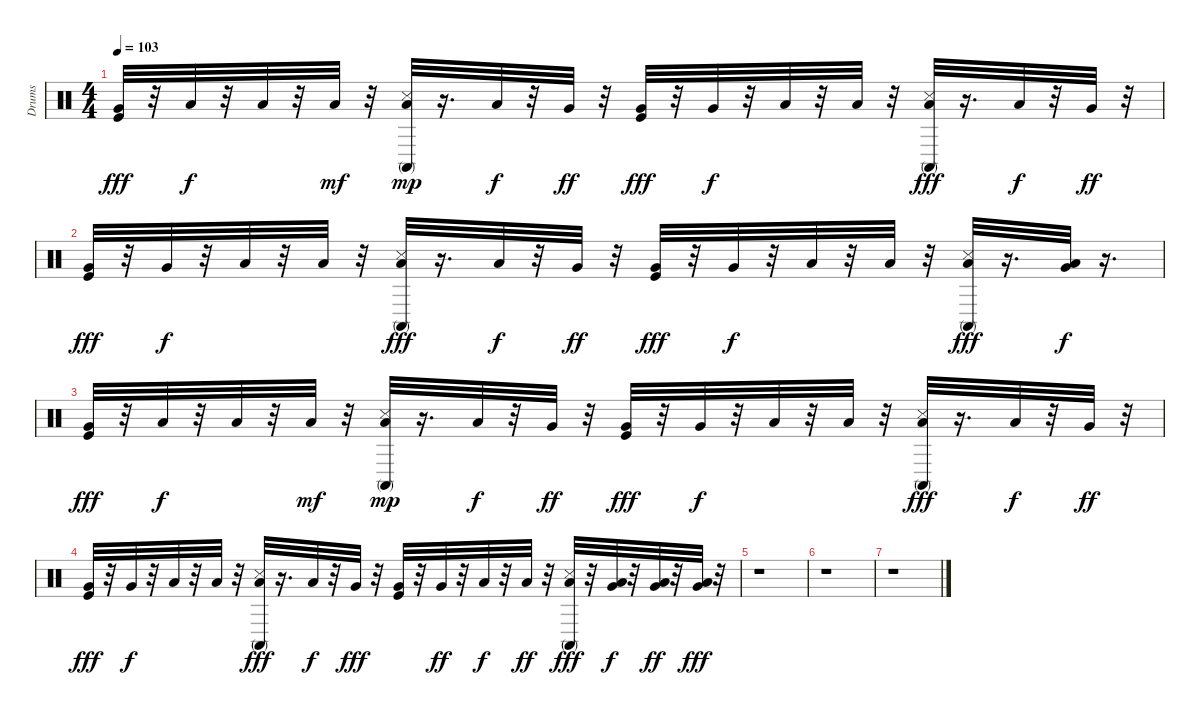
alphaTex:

\track ("Drums" "Drums") {instrument percussion}
\staff {score}
\articulation defaults
\ts (4 4)
\tempo 103
\clef neutral
\ks c
("Very Low Tom (hit)" "Kick (hit)").32{dy fff} r.32 "Low Floor Tom (hit)".32{dy f} r.32 "Low Floor Tom (hit)".32 r.32 "Low Floor Tom (hit)".32{dy mf} r.32 ("Conga high (mute)" "Snare (side stick) 3" "Low Floor Tom (hit)").32{dy mp} r.16{d} "Low Floor Tom (hit)".32{dy f} r.32 "Very Low Tom (hit)".32{dy ff} r.32 ("Very Low Tom (hit)" "Kick (hit)").32{dy fff} r.32 "Very Low Tom (hit)".32{dy f} r.32 "Low Floor Tom (hit)".32 r.32 "Low Floor Tom (hit)".32 r.32 ("Conga high (mute)" "Low Floor Tom (hit)" "Snare (side stick) 3").32{dy fff} r.16{d} "Low Floor Tom (hit)".32{dy f} r.32 "Very Low Tom (hit)".32{dy ff} r.32 |
("Very Low Tom (hit)" "Kick (hit)").32{dy fff} r.32 "Very Low Tom (hit)".32{dy f} r.32 "Low Floor Tom (hit)".32 r.32 "Low Floor Tom (hit)".32 r.32 ("Conga high (mute)" "Low Floor Tom (hit)" "Snare (side stick) 3").32{dy fff} r.16{d} "Low Floor Tom (hit)".32{dy f} r.32 "Very Low Tom (hit)".32{dy ff} r.32 ("Very Low Tom (hit)" "Kick (hit)").32{dy fff} r.32 "Very Low Tom (hit)".32{dy f} r.32 "Low Floor Tom (hit)".32 r.32 "Low Floor Tom (hit)".32 r.32 ("Conga high (mute)" "Low Floor Tom (hit)" "Snare (side stick) 3").32{dy fff} r.16{d} ("Low Floor Tom (hit)" "Very Low Tom (hit)").32{dy f} r.16{d} |
("Very Low Tom (hit)" "Kick (hit)").32{dy fff} r.32 "Low Floor Tom (hit)".32{dy f} r.32 "Low Floor Tom (hit)".32 r.32 "Low Floor Tom (hit)".32{dy mf} r.32 ("Conga high (mute)" "Snare (side stick) 3" "Low Floor Tom (hit)").32{dy mp} r.16{d} "Low Floor Tom (hit)".32{dy f} r.32 "Very Low Tom (hit)".32{dy ff} r.32 ("Very Low Tom (hit)" "Kick (hit)").32{dy fff} r.32 "Very Low Tom (hit)".32{dy f} r.32 "Low Floor Tom (hit)".32 r.32 "Low Floor Tom (hit)".32 r.32 ("Conga high (mute)" "Low Floor Tom (hit)" "Snare (side stick) 3").32{dy fff} r.16{d} "Low Floor Tom (hit)".32{dy f} r.32 "Very Low Tom (hit)".32{dy ff} r.32 |
("Very Low Tom (hit)" "Kick (hit)").32{dy fff} r.32 "Very Low Tom (hit)".32{dy f} r.32 "Low Floor Tom (hit)".32 r.32 "Low Floor Tom (hit)".32 r.32 ("Conga high (mute)" "Low Floor Tom (hit)" "Snare (side stick) 3").32{dy fff} r.16{d} "Low Floor Tom (hit)".32{dy f} r.32 "Very Low Tom (hit)".32{dy fff} r.32 ("Very Low Tom (hit)" "Kick (hit)").32 r.32 "Very Low Tom (hit)".32{dy ff} r.32 "Low Floor Tom (hit)".32{dy f} r.32 "Low Floor Tom (hit)".32{dy ff} r.32 ("Conga high (mute)" "Low Floor Tom (hit)" "Snare (side stick) 3").32{dy fff} r.32 ("Very Low Tom (hit)" "Low Floor Tom (hit)").32{dy f} r.32 ("Very Low Tom (hit)" "Low Floor Tom (hit)").32{dy ff} r.32 ("Very Low Tom (hit)" "Low Floor Tom (hit)").32{dy fff} r.32 |
r.1 |
r.1 |
r.1
